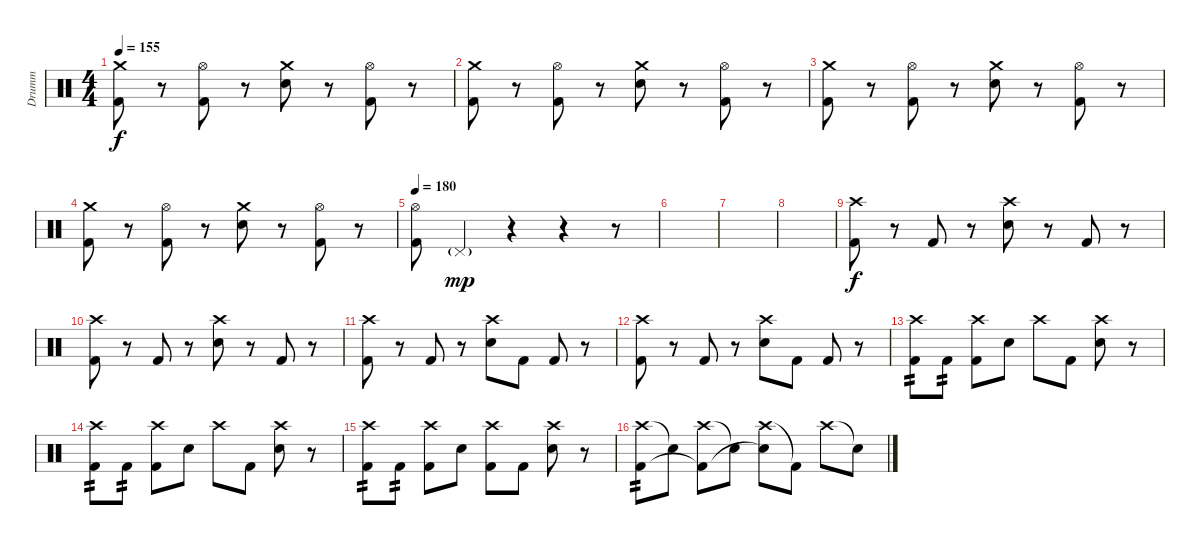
\track ("Drumm" "Drumm") {instrument percussion}
\staff {score}
\articulation defaults
\ts (4 4)
\tempo 155
\clef neutral
\ks c
("Crash medium (hit)" "Kick (hit) 2").8{dy f} r.8 ("Hi-Hat (open)" "Kick (hit) 2").8 r.8 ("Crash medium (hit)" "Snare (hit) 2").8 r.8 ("Hi-Hat (open)" "Kick (hit) 2").8 r.8 |
("Crash medium (hit)" "Kick (hit) 2").8 r.8 ("Hi-Hat (open)" "Kick (hit) 2").8 r.8 ("Crash medium (hit)" "Snare (hit) 2").8 r.8 ("Hi-Hat (open)" "Kick (hit) 2").8 r.8 |
("Crash medium (hit)" "Kick (hit) 2").8 r.8 ("Hi-Hat (open)" "Kick (hit) 2").8 r.8 ("Crash medium (hit)" "Snare (hit) 2").8 r.8 ("Hi-Hat (open)" "Kick (hit) 2").8 r.8 |
("Crash medium (hit)" "Kick (hit) 2").8 r.8 ("Hi-Hat (open)" "Kick (hit) 2").8 r.8 ("Crash medium (hit)" "Snare (hit) 2").8 r.8 ("Hi-Hat (open)" "Kick (hit) 2").8 r.8 |
\tempo 180
("Hi-Hat (open)" "Kick (hit) 2").8 "Pedal Hi-Hat (hit)"{g}.4{dy mp} r.4 r.4 r.8 |
|
|
|
("Crash high (hit)" "Kick (hit) 2").8{dy f} r.8 "Kick (hit) 2".8 r.8 ("Crash high (hit)" "Snare (hit) 2").8 r.8 "Kick (hit) 2".8 r.8 |
("Crash high (hit)" "Kick (hit) 2").8 r.8 "Kick (hit) 2".8 r.8 ("Crash high (hit)" "Snare (hit) 2").8 r.8 "Kick (hit) 2".8 r.8 |
("Crash high (hit)" "Kick (hit) 2").8 r.8 "Kick (hit) 2".8 r.8 ("Crash high (hit)" "Snare (hit) 2").8 "Kick (hit) 2".8 "Kick (hit) 2".8 r.8 |
("Crash high (hit)" "Kick (hit) 2").8 r.8 "Kick (hit) 2".8 r.8 ("Crash high (hit)" "Snare (hit) 2").8 "Kick (hit) 2".8 "Kick (hit) 2".8 r.8 |
("Crash high (hit)" "Kick (hit) 2").8{tp 2} "Kick (hit) 2".8{tp 2} ("Crash high (hit)" "Kick (hit) 2").8 "Snare (hit) 2".8 "Crash high (hit)".8 "Kick (hit) 2".8 ("Crash high (hit)" "Snare (hit) 2").8 r.8 |
("Crash high (hit)" "Kick (hit) 2").8{tp 2} "Kick (hit) 2".8{tp 2} ("Crash high (hit)" "Kick (hit) 2").8 "Snare (hit) 2".8 "Crash high (hit)".8 "Kick (hit) 2".8 ("Crash high (hit)" "Snare (hit) 2").8 r.8 |
("Crash high (hit)" "Kick (hit) 2").8{tp 2} "Kick (hit) 2".8{tp 2} ("Crash high (hit)" "Kick (hit) 2").8 "Snare (hit) 2".8 ("Crash high (hit)" "Kick (hit) 2").8 "Kick (hit) 2".8 ("Crash high (hit)" "Snare (hit) 2").8 r.8 |
("Crash high (hit)" "Kick (hit) 2").8{tp 2} "Snare (hit)"{t}.8 ("Crash high (hit)" "Kick (hit) 2"{t}).8 "Snare (hit)"{t}.8 ("Crash high (hit)" "Snare (hit)"{t}).8 "Kick (hit) 2"{t}.8 "Crash high (hit)".8 "Snare (hit)"{t}.8
